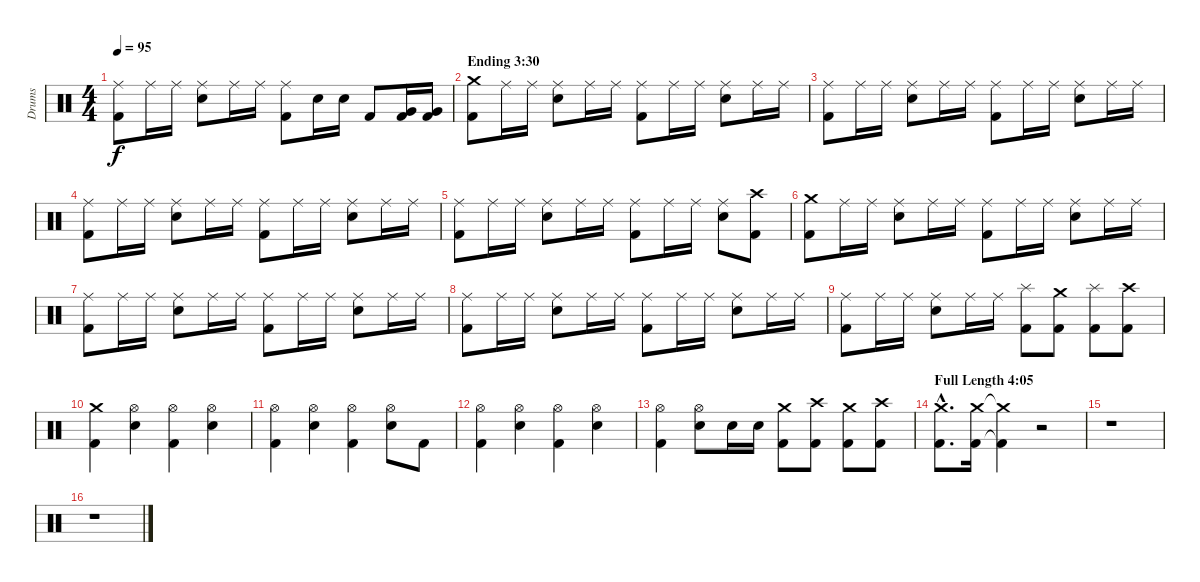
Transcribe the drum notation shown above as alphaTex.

\track ("Drums" "Drums") {instrument percussion}
\staff {score}
\articulation defaults
\ts (4 4)
\tempo 95
\clef neutral
\ks c
("Ride (middle)" "Kick (hit) 2").8{dy f} "Ride (middle)".16 "Ride (middle)".16 ("Ride (middle)" "Snare (hit) 2").8 "Ride (middle)".16 "Ride (middle)".16 ("Ride (middle)" "Kick (hit) 2").8 "Snare (hit) 2".16 "Snare (hit) 2".16 "Kick (hit) 2".8 ("Very Low Tom (hit)" "Kick (hit) 2").16 ("Very Low Tom (hit)" "Kick (hit) 2").16 |
\section ("" "Ending 3:30")
("Crash medium (hit)" "Kick (hit) 2").8 "Ride (middle)".16 "Ride (middle)".16 ("Ride (middle)" "Snare (hit) 2").8 "Ride (middle)".16 "Ride (middle)".16 ("Ride (middle)" "Kick (hit) 2").8 "Ride (middle)".16 "Ride (middle)".16 ("Ride (middle)" "Snare (hit) 2").8 "Ride (middle)".16 "Ride (middle)".16 |
("Ride (middle)" "Kick (hit) 2").8 "Ride (middle)".16 "Ride (middle)".16 ("Ride (middle)" "Snare (hit) 2").8 "Ride (middle)".16 "Ride (middle)".16 ("Ride (middle)" "Kick (hit) 2").8 "Ride (middle)".16 "Ride (middle)".16 ("Ride (middle)" "Snare (hit) 2").8 "Ride (middle)".16 "Ride (middle)".16 |
("Ride (middle)" "Kick (hit) 2").8 "Ride (middle)".16 "Ride (middle)".16 ("Ride (middle)" "Snare (hit) 2").8 "Ride (middle)".16 "Ride (middle)".16 ("Ride (middle)" "Kick (hit) 2").8 "Ride (middle)".16 "Ride (middle)".16 ("Ride (middle)" "Snare (hit) 2").8 "Ride (middle)".16 "Ride (middle)".16 |
("Ride (middle)" "Kick (hit) 2").8 "Ride (middle)".16 "Ride (middle)".16 ("Ride (middle)" "Snare (hit) 2").8 "Ride (middle)".16 "Ride (middle)".16 ("Ride (middle)" "Kick (hit) 2").8 "Ride (middle)".16 "Ride (middle)".16 ("Ride (middle)" "Snare (hit) 2").8 ("Crash high (hit)" "Kick (hit) 2").8 |
("Crash medium (hit)" "Kick (hit) 2").8 "Ride (middle)".16 "Ride (middle)".16 ("Ride (middle)" "Snare (hit) 2").8 "Ride (middle)".16 "Ride (middle)".16 ("Ride (middle)" "Kick (hit) 2").8 "Ride (middle)".16 "Ride (middle)".16 ("Ride (middle)" "Snare (hit) 2").8 "Ride (middle)".16 "Ride (middle)".16 |
("Ride (middle)" "Kick (hit) 2").8 "Ride (middle)".16 "Ride (middle)".16 ("Ride (middle)" "Snare (hit) 2").8 "Ride (middle)".16 "Ride (middle)".16 ("Ride (middle)" "Kick (hit) 2").8 "Ride (middle)".16 "Ride (middle)".16 ("Ride (middle)" "Snare (hit) 2").8 "Ride (middle)".16 "Ride (middle)".16 |
("Ride (middle)" "Kick (hit) 2").8 "Ride (middle)".16 "Ride (middle)".16 ("Ride (middle)" "Snare (hit) 2").8 "Ride (middle)".16 "Ride (middle)".16 ("Ride (middle)" "Kick (hit) 2").8 "Ride (middle)".16 "Ride (middle)".16 ("Ride (middle)" "Snare (hit) 2").8 "Ride (middle)".16 "Ride (middle)".16 |
("Ride (middle)" "Kick (hit) 2").8 "Ride (middle)".16 "Ride (middle)".16 ("Ride (middle)" "Snare (hit) 2").8 "Ride (middle)".16 "Ride (middle)".16 ("Splash (hit)" "Kick (hit) 2").8 ("Crash medium (hit)" "Kick (hit) 2").8 ("Splash (hit)" "Kick (hit) 2").8 ("Crash high (hit)" "Kick (hit) 2").8 |
("Crash medium (hit)" "Kick (hit) 2").4 ("Hi-Hat (open)" "Snare (hit) 2").4 ("Hi-Hat (open)" "Kick (hit) 2").4 ("Hi-Hat (open)" "Snare (hit) 2").4 |
("Hi-Hat (open)" "Kick (hit) 2").4 ("Hi-Hat (open)" "Snare (hit) 2").4 ("Hi-Hat (open)" "Kick (hit) 2").4 ("Hi-Hat (open)" "Snare (hit) 2").8 "Kick (hit) 2".8 |
("Hi-Hat (open)" "Kick (hit) 2").4 ("Hi-Hat (open)" "Snare (hit) 2").4 ("Hi-Hat (open)" "Kick (hit) 2").4 ("Hi-Hat (open)" "Snare (hit) 2").4 |
("Hi-Hat (open)" "Kick (hit) 2").4 ("Hi-Hat (open)" "Snare (hit) 2").8 "Snare (hit) 2".16 "Snare (hit) 2".16 ("Crash medium (hit)" "Kick (hit) 2").8 ("Crash high (hit)" "Kick (hit) 2").8 ("Crash medium (hit)" "Kick (hit) 2").8 ("Crash high (hit)" "Kick (hit) 2").8 |
\section ("" "Full Length 4:05")
("Crash medium (hit)"{hac} "Kick (hit) 2"{hac}).8{d} ("Crash medium (hit)" "Kick (hit) 2").16 ("Crash medium (hit)"{t} "Kick (hit) 2"{t}).4 r.2 |
r.1 |
r.1
